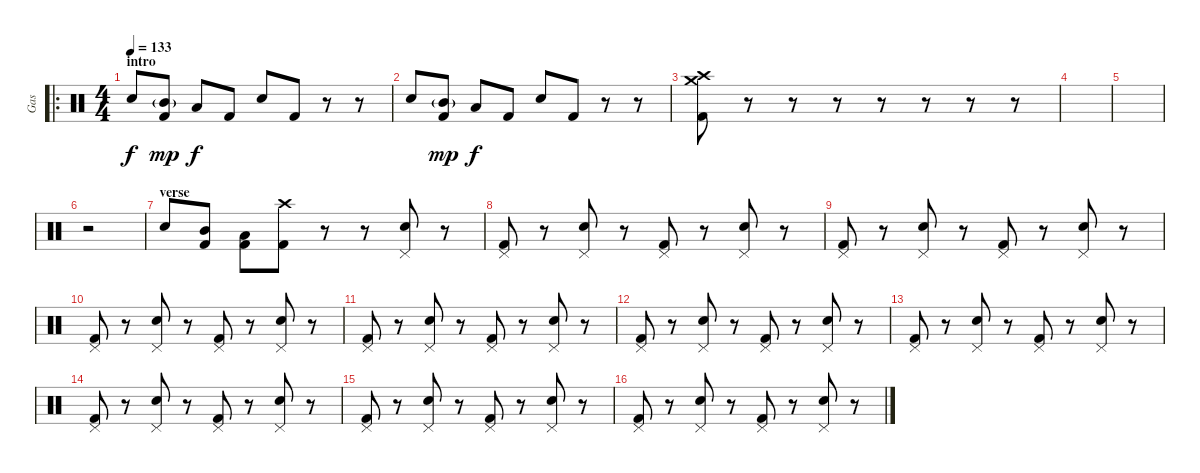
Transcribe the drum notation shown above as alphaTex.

\track ("Gas" "Gas") {instrument percussion}
\staff {score}
\articulation defaults
\ro
\ts (4 4)
\section ("" "intro")
\tempo 133
\clef neutral
\ks c "Electric Snare (hit)".8{dy f}
("Kick (hit) 2" "Mid Tom (hit)"{g}).8{dy mp} "Low Tom (hit)".8{dy f} "Kick (hit) 2".8 "Electric Snare (hit)".8 "Kick (hit) 2".8 r.8 r.8 |
"Electric Snare (hit)".8 ("Kick (hit) 2" "Mid Tom (hit)"{g}).8{dy mp} "Low Tom (hit)".8{dy f} "Kick (hit) 2".8 "Electric Snare (hit)".8 "Kick (hit) 2".8 r.8 r.8 |
("Crash medium (hit)" "Crash high (hit)" "Kick (hit) 2").8 r.8 r.8 r.8 r.8 r.8 r.8 r.8 |
|
|
r.2 |
\section ("" "verse")
"Electric Snare (hit)".8 ("Mid Tom (hit)" "Kick (hit) 2").8 ("Low Tom (hit)" "Kick (hit) 2").8 ("Crash high (hit)" "Kick (hit) 2").8 r.8 r.8 ("Pedal Hi-Hat (hit)" "Electric Snare (hit)").8 r.8 |
("Pedal Hi-Hat (hit)" "Kick (hit) 2").8 r.8 ("Pedal Hi-Hat (hit)" "Electric Snare (hit)").8 r.8 ("Pedal Hi-Hat (hit)" "Kick (hit) 2").8 r.8 ("Pedal Hi-Hat (hit)" "Electric Snare (hit)").8 r.8 |
("Pedal Hi-Hat (hit)" "Kick (hit) 2").8 r.8 ("Pedal Hi-Hat (hit)" "Electric Snare (hit)").8 r.8 ("Pedal Hi-Hat (hit)" "Kick (hit) 2").8 r.8 ("Pedal Hi-Hat (hit)" "Electric Snare (hit)").8 r.8 |
("Pedal Hi-Hat (hit)" "Kick (hit) 2").8 r.8 ("Pedal Hi-Hat (hit)" "Electric Snare (hit)").8 r.8 ("Pedal Hi-Hat (hit)" "Kick (hit) 2").8 r.8 ("Pedal Hi-Hat (hit)" "Electric Snare (hit)").8 r.8 |
("Pedal Hi-Hat (hit)" "Kick (hit) 2").8 r.8 ("Pedal Hi-Hat (hit)" "Electric Snare (hit)").8 r.8 ("Pedal Hi-Hat (hit)" "Kick (hit) 2").8 r.8 ("Pedal Hi-Hat (hit)" "Electric Snare (hit)").8 r.8 |
("Pedal Hi-Hat (hit)" "Kick (hit) 2").8 r.8 ("Pedal Hi-Hat (hit)" "Electric Snare (hit)").8 r.8 ("Pedal Hi-Hat (hit)" "Kick (hit) 2").8 r.8 ("Pedal Hi-Hat (hit)" "Electric Snare (hit)").8 r.8 |
("Pedal Hi-Hat (hit)" "Kick (hit) 2").8 r.8 ("Pedal Hi-Hat (hit)" "Electric Snare (hit)").8 r.8 ("Pedal Hi-Hat (hit)" "Kick (hit) 2").8 r.8 ("Pedal Hi-Hat (hit)" "Electric Snare (hit)").8 r.8 |
("Pedal Hi-Hat (hit)" "Kick (hit) 2").8 r.8 ("Pedal Hi-Hat (hit)" "Electric Snare (hit)").8 r.8 ("Pedal Hi-Hat (hit)" "Kick (hit) 2").8 r.8 ("Pedal Hi-Hat (hit)" "Electric Snare (hit)").8 r.8 |
("Pedal Hi-Hat (hit)" "Kick (hit) 2").8 r.8 ("Pedal Hi-Hat (hit)" "Electric Snare (hit)").8 r.8 ("Pedal Hi-Hat (hit)" "Kick (hit) 2").8 r.8 ("Pedal Hi-Hat (hit)" "Electric Snare (hit)").8 r.8 |
("Pedal Hi-Hat (hit)" "Kick (hit) 2").8 r.8 ("Pedal Hi-Hat (hit)" "Electric Snare (hit)").8 r.8 ("Pedal Hi-Hat (hit)" "Kick (hit) 2").8 r.8 ("Pedal Hi-Hat (hit)" "Electric Snare (hit)").8 r.8
